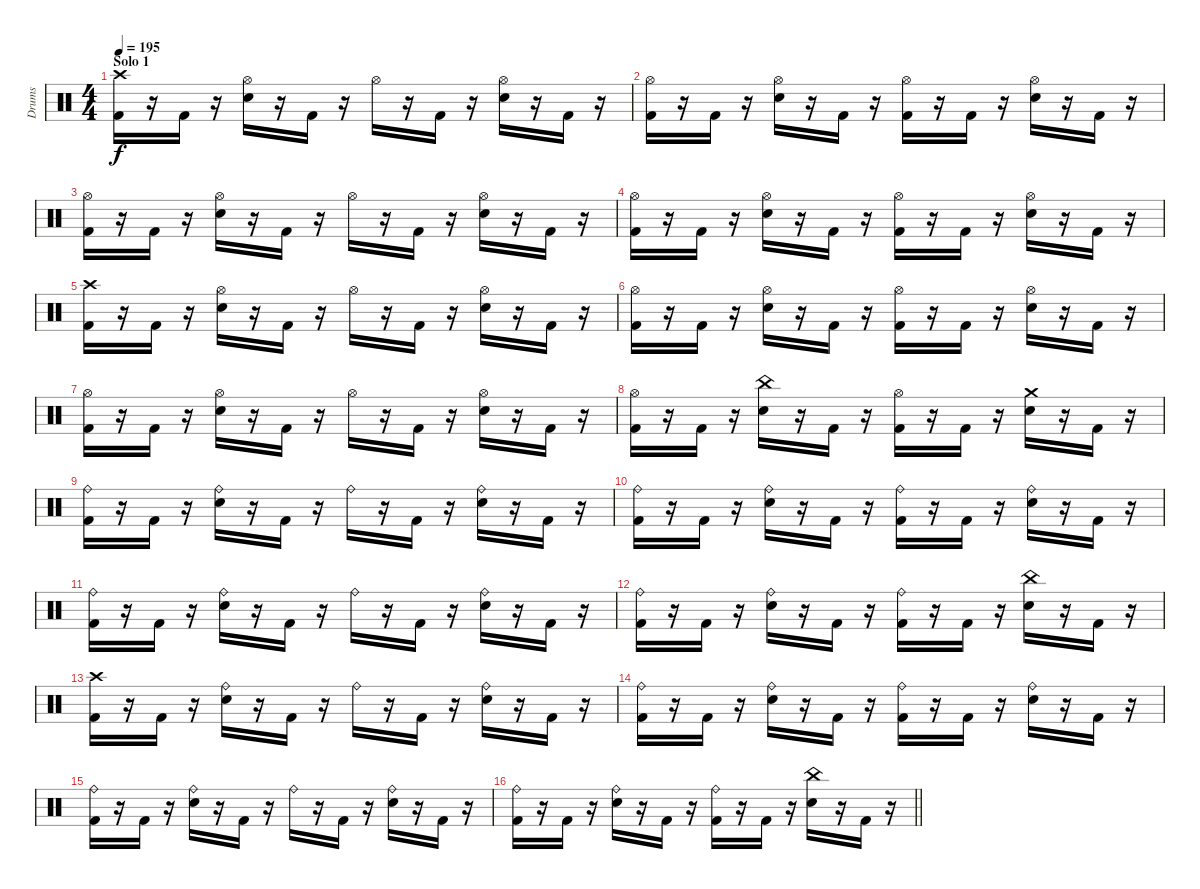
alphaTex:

\track ("Drums" "Drums") {instrument percussion}
\staff {score}
\articulation defaults
\ts (4 4)
\section ("" "Solo 1")
\tempo 195
\clef neutral
\ks c
("Crash high (hit)" "Kick (hit) 2").16{dy f} r.16 "Kick (hit) 2".16 r.16 ("Hi-Hat (open)" "Electric Snare (hit)").16 r.16 "Kick (hit) 2".16 r.16 "Hi-Hat (open)".16 r.16 "Kick (hit) 2".16 r.16 ("Hi-Hat (open)" "Electric Snare (hit)").16 r.16 "Kick (hit) 2".16 r.16 |
("Hi-Hat (open)" "Kick (hit) 2").16 r.16 "Kick (hit) 2".16 r.16 ("Hi-Hat (open)" "Electric Snare (hit)").16 r.16 "Kick (hit) 2".16 r.16 ("Hi-Hat (open)" "Kick (hit) 2").16 r.16 "Kick (hit) 2".16 r.16 ("Hi-Hat (open)" "Electric Snare (hit)").16 r.16 "Kick (hit) 2".16 r.16 |
("Hi-Hat (open)" "Kick (hit) 2").16 r.16 "Kick (hit) 2".16 r.16 ("Hi-Hat (open)" "Electric Snare (hit)").16 r.16 "Kick (hit) 2".16 r.16 "Hi-Hat (open)".16 r.16 "Kick (hit) 2".16 r.16 ("Hi-Hat (open)" "Electric Snare (hit)").16 r.16 "Kick (hit) 2".16 r.16 |
("Hi-Hat (open)" "Kick (hit) 2").16 r.16 "Kick (hit) 2".16 r.16 ("Hi-Hat (open)" "Electric Snare (hit)").16 r.16 "Kick (hit) 2".16 r.16 ("Hi-Hat (open)" "Kick (hit) 2").16 r.16 "Kick (hit) 2".16 r.16 ("Hi-Hat (open)" "Electric Snare (hit)").16 r.16 "Kick (hit) 2".16 r.16 |
("Crash high (hit)" "Kick (hit) 2").16 r.16 "Kick (hit) 2".16 r.16 ("Hi-Hat (open)" "Electric Snare (hit)").16 r.16 "Kick (hit) 2".16 r.16 "Hi-Hat (open)".16 r.16 "Kick (hit) 2".16 r.16 ("Hi-Hat (open)" "Electric Snare (hit)").16 r.16 "Kick (hit) 2".16 r.16 |
("Hi-Hat (open)" "Kick (hit) 2").16 r.16 "Kick (hit) 2".16 r.16 ("Hi-Hat (open)" "Electric Snare (hit)").16 r.16 "Kick (hit) 2".16 r.16 ("Hi-Hat (open)" "Kick (hit) 2").16 r.16 "Kick (hit) 2".16 r.16 ("Hi-Hat (open)" "Electric Snare (hit)").16 r.16 "Kick (hit) 2".16 r.16 |
("Hi-Hat (open)" "Kick (hit) 2").16 r.16 "Kick (hit) 2".16 r.16 ("Hi-Hat (open)" "Electric Snare (hit)").16 r.16 "Kick (hit) 2".16 r.16 "Hi-Hat (open)".16 r.16 "Kick (hit) 2".16 r.16 ("Hi-Hat (open)" "Electric Snare (hit)").16 r.16 "Kick (hit) 2".16 r.16 |
("Hi-Hat (open)" "Kick (hit) 2").16 r.16 "Kick (hit) 2".16 r.16 ("China (hit)" "Electric Snare (hit)").16 r.16 "Kick (hit) 2".16 r.16 ("Hi-Hat (open)" "Kick (hit) 2").16 r.16 "Kick (hit) 2".16 r.16 ("Crash medium (hit)" "Electric Snare (hit)").16 r.16 "Kick (hit) 2".16 r.16 |
("Ride (bell)" "Kick (hit) 2").16 r.16 "Kick (hit) 2".16 r.16 ("Ride (bell)" "Electric Snare (hit)").16 r.16 "Kick (hit) 2".16 r.16 "Ride (bell)".16 r.16 "Kick (hit) 2".16 r.16 ("Ride (bell)" "Electric Snare (hit)").16 r.16 "Kick (hit) 2".16 r.16 |
("Ride (bell)" "Kick (hit) 2").16 r.16 "Kick (hit) 2".16 r.16 ("Ride (bell)" "Electric Snare (hit)").16 r.16 "Kick (hit) 2".16 r.16 ("Ride (bell)" "Kick (hit) 2").16 r.16 "Kick (hit) 2".16 r.16 ("Ride (bell)" "Electric Snare (hit)").16 r.16 "Kick (hit) 2".16 r.16 |
("Ride (bell)" "Kick (hit) 2").16 r.16 "Kick (hit) 2".16 r.16 ("Ride (bell)" "Electric Snare (hit)").16 r.16 "Kick (hit) 2".16 r.16 "Ride (bell)".16 r.16 "Kick (hit) 2".16 r.16 ("Ride (bell)" "Electric Snare (hit)").16 r.16 "Kick (hit) 2".16 r.16 |
("Ride (bell)" "Kick (hit) 2").16 r.16 "Kick (hit) 2".16 r.16 ("Ride (bell)" "Electric Snare (hit)").16 r.16 "Kick (hit) 2".16 r.16 ("Ride (bell)" "Kick (hit) 2").16 r.16 "Kick (hit) 2".16 r.16 ("China (hit)" "Electric Snare (hit)").16 r.16 "Kick (hit) 2".16 r.16 |
("Crash high (hit)" "Kick (hit) 2").16 r.16 "Kick (hit) 2".16 r.16 ("Ride (bell)" "Electric Snare (hit)").16 r.16 "Kick (hit) 2".16 r.16 "Ride (bell)".16 r.16 "Kick (hit) 2".16 r.16 ("Ride (bell)" "Electric Snare (hit)").16 r.16 "Kick (hit) 2".16 r.16 |
("Ride (bell)" "Kick (hit) 2").16 r.16 "Kick (hit) 2".16 r.16 ("Ride (bell)" "Electric Snare (hit)").16 r.16 "Kick (hit) 2".16 r.16 ("Ride (bell)" "Kick (hit) 2").16 r.16 "Kick (hit) 2".16 r.16 ("Ride (bell)" "Electric Snare (hit)").16 r.16 "Kick (hit) 2".16 r.16 |
("Ride (bell)" "Kick (hit) 2").16 r.16 "Kick (hit) 2".16 r.16 ("Ride (bell)" "Electric Snare (hit)").16 r.16 "Kick (hit) 2".16 r.16 "Ride (bell)".16 r.16 "Kick (hit) 2".16 r.16 ("Ride (bell)" "Electric Snare (hit)").16 r.16 "Kick (hit) 2".16 r.16 |
\barLineRight lightlight
("Ride (bell)" "Kick (hit) 2").16 r.16 "Kick (hit) 2".16 r.16 ("Ride (bell)" "Electric Snare (hit)").16 r.16 "Kick (hit) 2".16 r.16 ("Ride (bell)" "Kick (hit) 2").16 r.16 "Kick (hit) 2".16 r.16 ("China (hit)" "Electric Snare (hit)").16 r.16 "Kick (hit) 2".16 r.16
